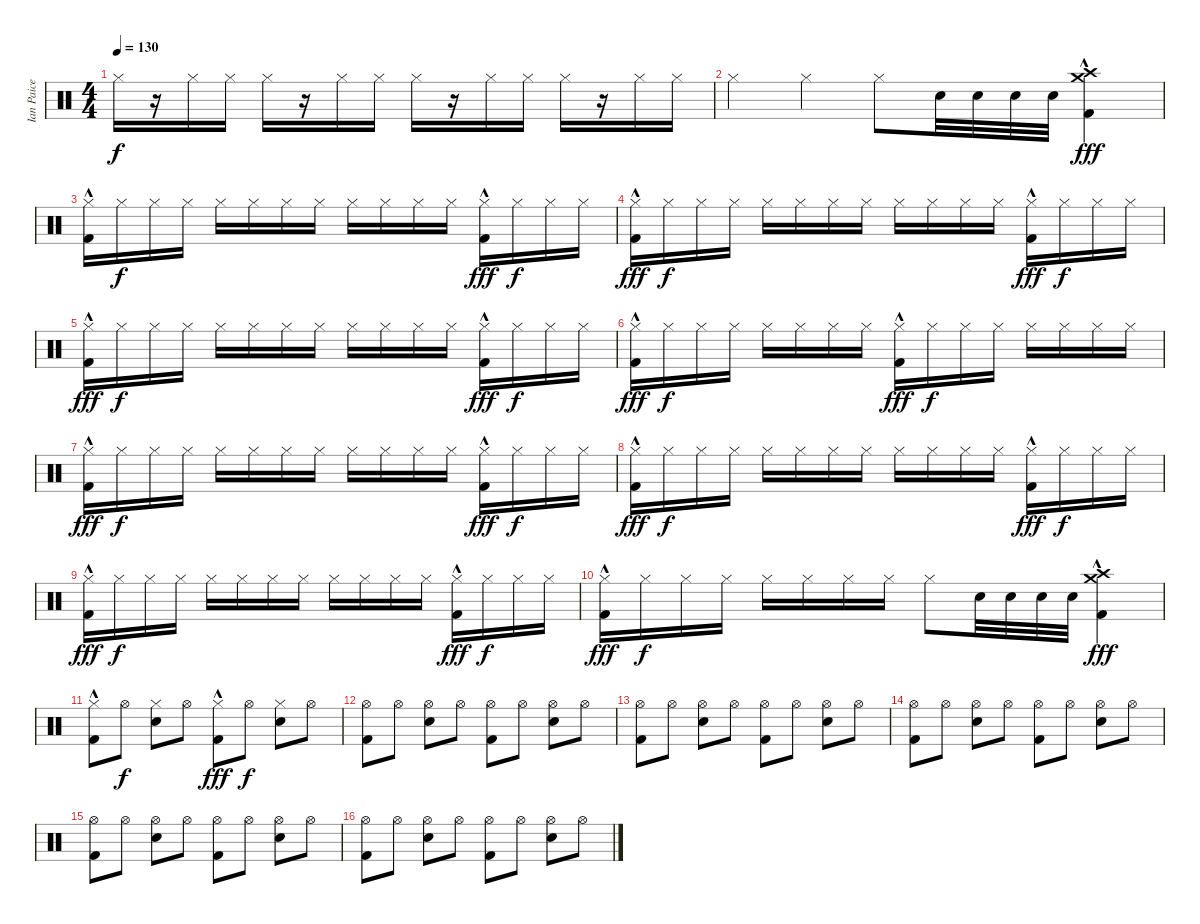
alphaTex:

\track ("Ian Paice" "Ian Paice") {instrument percussion}
\staff {score}
\articulation defaults
\ts (4 4)
\tempo 130
\clef neutral
\ks c "Hi-Hat (closed)".16{dy f}
r.16 "Hi-Hat (closed)".16 "Hi-Hat (closed)".16 "Hi-Hat (closed)".16 r.16 "Hi-Hat (closed)".16 "Hi-Hat (closed)".16 "Hi-Hat (closed)".16 r.16 "Hi-Hat (closed)".16 "Hi-Hat (closed)".16 "Hi-Hat (closed)".16 r.16 "Hi-Hat (closed)".16 "Hi-Hat (closed)".16 |
"Hi-Hat (closed)".4 "Hi-Hat (closed)".4 "Hi-Hat (closed)".8 "Snare (hit) 2".32 "Snare (hit) 2".32 "Snare (hit) 2".32 "Snare (hit) 2".32 ("Crash high (hit)" "Crash medium (hit)" "Kick (hit) 2"{hac}).4{dy fff} |
("Hi-Hat (closed)" "Kick (hit) 2"{hac}).16 "Hi-Hat (closed)".16{dy f} "Hi-Hat (closed)".16 "Hi-Hat (closed)".16 "Hi-Hat (closed)".16 "Hi-Hat (closed)".16 "Hi-Hat (closed)".16 "Hi-Hat (closed)".16 "Hi-Hat (closed)".16 "Hi-Hat (closed)".16 "Hi-Hat (closed)".16 "Hi-Hat (closed)".16 ("Hi-Hat (closed)" "Kick (hit) 2"{hac}).16{dy fff} "Hi-Hat (closed)".16{dy f} "Hi-Hat (closed)".16 "Hi-Hat (closed)".16 |
("Hi-Hat (closed)" "Kick (hit) 2"{hac}).16{dy fff} "Hi-Hat (closed)".16{dy f} "Hi-Hat (closed)".16 "Hi-Hat (closed)".16 "Hi-Hat (closed)".16 "Hi-Hat (closed)".16 "Hi-Hat (closed)".16 "Hi-Hat (closed)".16 "Hi-Hat (closed)".16 "Hi-Hat (closed)".16 "Hi-Hat (closed)".16 "Hi-Hat (closed)".16 ("Hi-Hat (closed)" "Kick (hit) 2"{hac}).16{dy fff} "Hi-Hat (closed)".16{dy f} "Hi-Hat (closed)".16 "Hi-Hat (closed)".16 |
("Hi-Hat (closed)" "Kick (hit) 2"{hac}).16{dy fff} "Hi-Hat (closed)".16{dy f} "Hi-Hat (closed)".16 "Hi-Hat (closed)".16 "Hi-Hat (closed)".16 "Hi-Hat (closed)".16 "Hi-Hat (closed)".16 "Hi-Hat (closed)".16 "Hi-Hat (closed)".16 "Hi-Hat (closed)".16 "Hi-Hat (closed)".16 "Hi-Hat (closed)".16 ("Hi-Hat (closed)" "Kick (hit) 2"{hac}).16{dy fff} "Hi-Hat (closed)".16{dy f} "Hi-Hat (closed)".16 "Hi-Hat (closed)".16 |
("Hi-Hat (closed)" "Kick (hit) 2"{hac}).16{dy fff} "Hi-Hat (closed)".16{dy f} "Hi-Hat (closed)".16 "Hi-Hat (closed)".16 "Hi-Hat (closed)".16 "Hi-Hat (closed)".16 "Hi-Hat (closed)".16 "Hi-Hat (closed)".16 ("Hi-Hat (closed)" "Kick (hit) 2"{hac}).16{dy fff} "Hi-Hat (closed)".16{dy f} "Hi-Hat (closed)".16 "Hi-Hat (closed)".16 "Hi-Hat (closed)".16 "Hi-Hat (closed)".16 "Hi-Hat (closed)".16 "Hi-Hat (closed)".16 |
("Hi-Hat (closed)" "Kick (hit) 2"{hac}).16{dy fff} "Hi-Hat (closed)".16{dy f} "Hi-Hat (closed)".16 "Hi-Hat (closed)".16 "Hi-Hat (closed)".16 "Hi-Hat (closed)".16 "Hi-Hat (closed)".16 "Hi-Hat (closed)".16 "Hi-Hat (closed)".16 "Hi-Hat (closed)".16 "Hi-Hat (closed)".16 "Hi-Hat (closed)".16 ("Hi-Hat (closed)" "Kick (hit) 2"{hac}).16{dy fff} "Hi-Hat (closed)".16{dy f} "Hi-Hat (closed)".16 "Hi-Hat (closed)".16 |
("Hi-Hat (closed)" "Kick (hit) 2"{hac}).16{dy fff} "Hi-Hat (closed)".16{dy f} "Hi-Hat (closed)".16 "Hi-Hat (closed)".16 "Hi-Hat (closed)".16 "Hi-Hat (closed)".16 "Hi-Hat (closed)".16 "Hi-Hat (closed)".16 "Hi-Hat (closed)".16 "Hi-Hat (closed)".16 "Hi-Hat (closed)".16 "Hi-Hat (closed)".16 ("Hi-Hat (closed)" "Kick (hit) 2"{hac}).16{dy fff} "Hi-Hat (closed)".16{dy f} "Hi-Hat (closed)".16 "Hi-Hat (closed)".16 |
("Hi-Hat (closed)" "Kick (hit) 2"{hac}).16{dy fff} "Hi-Hat (closed)".16{dy f} "Hi-Hat (closed)".16 "Hi-Hat (closed)".16 "Hi-Hat (closed)".16 "Hi-Hat (closed)".16 "Hi-Hat (closed)".16 "Hi-Hat (closed)".16 "Hi-Hat (closed)".16 "Hi-Hat (closed)".16 "Hi-Hat (closed)".16 "Hi-Hat (closed)".16 ("Hi-Hat (closed)" "Kick (hit) 2"{hac}).16{dy fff} "Hi-Hat (closed)".16{dy f} "Hi-Hat (closed)".16 "Hi-Hat (closed)".16 |
("Hi-Hat (closed)" "Kick (hit) 2"{hac}).16{dy fff} "Hi-Hat (closed)".16{dy f} "Hi-Hat (closed)".16 "Hi-Hat (closed)".16 "Hi-Hat (closed)".16 "Hi-Hat (closed)".16 "Hi-Hat (closed)".16 "Hi-Hat (closed)".16 "Hi-Hat (closed)".8 "Snare (hit) 2".32 "Snare (hit) 2".32 "Snare (hit) 2".32 "Snare (hit) 2".32 ("Crash high (hit)" "Crash medium (hit)" "Kick (hit) 2"{hac}).4{dy fff} |
("Hi-Hat (closed)" "Kick (hit) 2"{hac}).8 "Hi-Hat (open)".8{dy f} ("Hi-Hat (closed)" "Snare (hit) 2").8 "Hi-Hat (open)".8 ("Hi-Hat (closed)" "Kick (hit) 2"{hac}).8{dy fff} "Hi-Hat (open)".8{dy f} ("Hi-Hat (closed)" "Snare (hit) 2").8 "Hi-Hat (open)".8 |
("Hi-Hat (open)" "Kick (hit) 2").8 "Hi-Hat (open)".8 ("Hi-Hat (open)" "Snare (hit) 2").8 "Hi-Hat (open)".8 ("Hi-Hat (open)" "Kick (hit) 2").8 "Hi-Hat (open)".8 ("Hi-Hat (open)" "Snare (hit) 2").8 "Hi-Hat (open)".8 |
("Hi-Hat (open)" "Kick (hit) 2").8 "Hi-Hat (open)".8 ("Hi-Hat (open)" "Snare (hit) 2").8 "Hi-Hat (open)".8 ("Hi-Hat (open)" "Kick (hit) 2").8 "Hi-Hat (open)".8 ("Hi-Hat (open)" "Snare (hit) 2").8 "Hi-Hat (open)".8 |
("Hi-Hat (open)" "Kick (hit) 2").8 "Hi-Hat (open)".8 ("Hi-Hat (open)" "Snare (hit) 2").8 "Hi-Hat (open)".8 ("Hi-Hat (open)" "Kick (hit) 2").8 "Hi-Hat (open)".8 ("Hi-Hat (open)" "Snare (hit) 2").8 "Hi-Hat (open)".8 |
("Hi-Hat (open)" "Kick (hit) 2").8 "Hi-Hat (open)".8 ("Hi-Hat (open)" "Snare (hit) 2").8 "Hi-Hat (open)".8 ("Hi-Hat (open)" "Kick (hit) 2").8 "Hi-Hat (open)".8 ("Hi-Hat (open)" "Snare (hit) 2").8 "Hi-Hat (open)".8 |
("Hi-Hat (open)" "Kick (hit) 2").8 "Hi-Hat (open)".8 ("Hi-Hat (open)" "Snare (hit) 2").8 "Hi-Hat (open)".8 ("Hi-Hat (open)" "Kick (hit) 2").8 "Hi-Hat (open)".8 ("Hi-Hat (open)" "Snare (hit) 2").8 "Hi-Hat (open)".8
